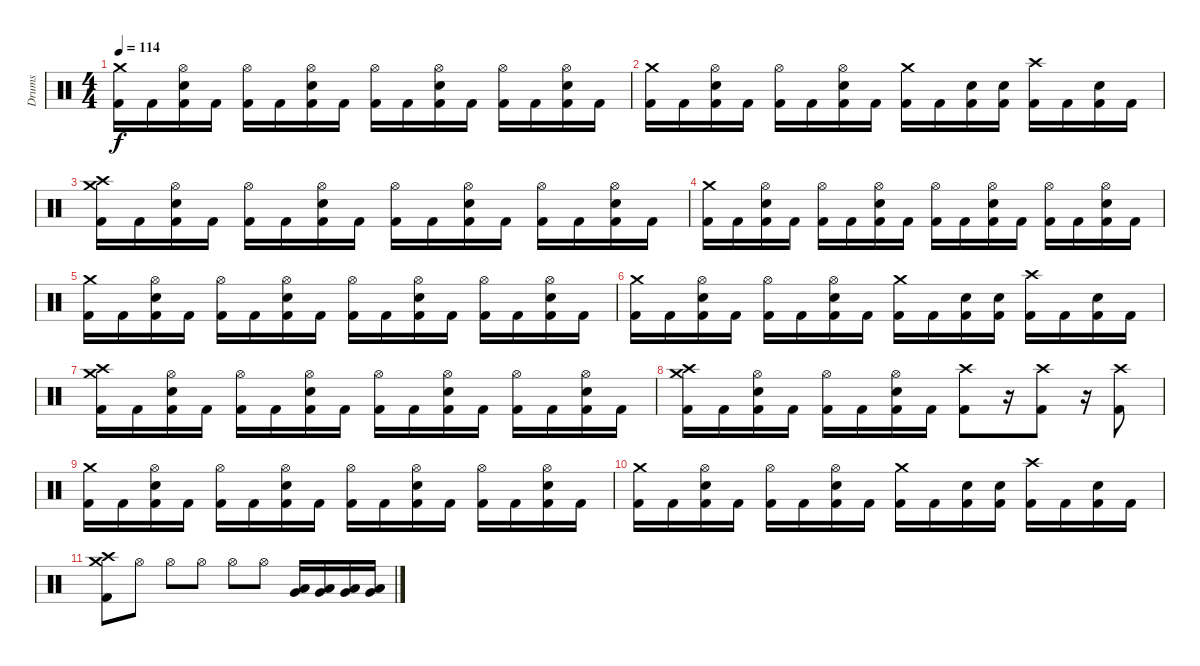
\track ("Drums" "Drums") {instrument percussion}
\staff {score}
\articulation defaults
\ts (4 4)
\tempo 114
\clef neutral
\ks c
("Crash medium (hit)" "Kick (hit) 2").16{dy f volume 16} "Kick (hit) 2".16 ("Hi-Hat (open)" "Snare (hit) 2" "Kick (hit) 2").16 "Kick (hit) 2".16 ("Hi-Hat (open)" "Kick (hit) 2").16 "Kick (hit) 2".16 ("Hi-Hat (open)" "Snare (hit) 2" "Kick (hit) 2").16 "Kick (hit) 2".16 ("Hi-Hat (open)" "Kick (hit) 2").16 "Kick (hit) 2".16 ("Hi-Hat (open)" "Snare (hit) 2" "Kick (hit) 2").16 "Kick (hit) 2".16 ("Hi-Hat (open)" "Kick (hit) 2").16 "Kick (hit) 2".16 ("Hi-Hat (open)" "Snare (hit) 2" "Kick (hit) 2").16 "Kick (hit) 2".16 |
("Crash medium (hit)" "Kick (hit) 2").16 "Kick (hit) 2".16 ("Hi-Hat (open)" "Snare (hit) 2" "Kick (hit) 2").16 "Kick (hit) 2".16 ("Hi-Hat (open)" "Kick (hit) 2").16 "Kick (hit) 2".16 ("Hi-Hat (open)" "Snare (hit) 2" "Kick (hit) 2").16 "Kick (hit) 2".16 ("Crash medium (hit)" "Kick (hit) 2").16 "Kick (hit) 2".16 ("Snare (hit) 2" "Kick (hit) 2").16 ("Snare (hit) 2" "Kick (hit) 2").16 ("Crash high (hit)" "Kick (hit) 2").16 "Kick (hit) 2".16 ("Snare (hit) 2" "Kick (hit) 2").16 "Kick (hit) 2".16 |
("Crash medium (hit)" "Crash high (hit)" "Kick (hit) 2").16 "Kick (hit) 2".16 ("Hi-Hat (open)" "Snare (hit) 2" "Kick (hit) 2").16 "Kick (hit) 2".16 ("Hi-Hat (open)" "Kick (hit) 2").16 "Kick (hit) 2".16 ("Hi-Hat (open)" "Snare (hit) 2" "Kick (hit) 2").16 "Kick (hit) 2".16 ("Hi-Hat (open)" "Kick (hit) 2").16 "Kick (hit) 2".16 ("Hi-Hat (open)" "Snare (hit) 2" "Kick (hit) 2").16 "Kick (hit) 2".16 ("Hi-Hat (open)" "Kick (hit) 2").16 "Kick (hit) 2".16 ("Hi-Hat (open)" "Snare (hit) 2" "Kick (hit) 2").16 "Kick (hit) 2".16 |
("Crash medium (hit)" "Kick (hit) 2").16 "Kick (hit) 2".16 ("Hi-Hat (open)" "Snare (hit) 2" "Kick (hit) 2").16 "Kick (hit) 2".16 ("Hi-Hat (open)" "Kick (hit) 2").16 "Kick (hit) 2".16 ("Hi-Hat (open)" "Snare (hit) 2" "Kick (hit) 2").16 "Kick (hit) 2".16 ("Hi-Hat (open)" "Kick (hit) 2").16 "Kick (hit) 2".16 ("Hi-Hat (open)" "Snare (hit) 2" "Kick (hit) 2").16 "Kick (hit) 2".16 ("Hi-Hat (open)" "Kick (hit) 2").16 "Kick (hit) 2".16 ("Hi-Hat (open)" "Snare (hit) 2" "Kick (hit) 2").16 "Kick (hit) 2".16 |
("Crash medium (hit)" "Kick (hit) 2").16 "Kick (hit) 2".16 ("Hi-Hat (open)" "Snare (hit) 2" "Kick (hit) 2").16 "Kick (hit) 2".16 ("Hi-Hat (open)" "Kick (hit) 2").16 "Kick (hit) 2".16 ("Hi-Hat (open)" "Snare (hit) 2" "Kick (hit) 2").16 "Kick (hit) 2".16 ("Hi-Hat (open)" "Kick (hit) 2").16 "Kick (hit) 2".16 ("Hi-Hat (open)" "Snare (hit) 2" "Kick (hit) 2").16 "Kick (hit) 2".16 ("Hi-Hat (open)" "Kick (hit) 2").16 "Kick (hit) 2".16 ("Hi-Hat (open)" "Snare (hit) 2" "Kick (hit) 2").16 "Kick (hit) 2".16 |
("Crash medium (hit)" "Kick (hit) 2").16 "Kick (hit) 2".16 ("Hi-Hat (open)" "Snare (hit) 2" "Kick (hit) 2").16 "Kick (hit) 2".16 ("Hi-Hat (open)" "Kick (hit) 2").16 "Kick (hit) 2".16 ("Hi-Hat (open)" "Snare (hit) 2" "Kick (hit) 2").16 "Kick (hit) 2".16 ("Crash medium (hit)" "Kick (hit) 2").16 "Kick (hit) 2".16 ("Snare (hit) 2" "Kick (hit) 2").16 ("Snare (hit) 2" "Kick (hit) 2").16 ("Crash high (hit)" "Kick (hit) 2").16 "Kick (hit) 2".16 ("Snare (hit) 2" "Kick (hit) 2").16 "Kick (hit) 2".16 |
("Crash medium (hit)" "Crash high (hit)" "Kick (hit) 2").16 "Kick (hit) 2".16 ("Hi-Hat (open)" "Snare (hit) 2" "Kick (hit) 2").16 "Kick (hit) 2".16 ("Hi-Hat (open)" "Kick (hit) 2").16 "Kick (hit) 2".16 ("Hi-Hat (open)" "Snare (hit) 2" "Kick (hit) 2").16 "Kick (hit) 2".16 ("Hi-Hat (open)" "Kick (hit) 2").16 "Kick (hit) 2".16 ("Hi-Hat (open)" "Snare (hit) 2" "Kick (hit) 2").16 "Kick (hit) 2".16 ("Hi-Hat (open)" "Kick (hit) 2").16 "Kick (hit) 2".16 ("Hi-Hat (open)" "Snare (hit) 2" "Kick (hit) 2").16 "Kick (hit) 2".16 |
("Crash medium (hit)" "Crash high (hit)" "Kick (hit) 2").16 "Kick (hit) 2".16 ("Hi-Hat (open)" "Snare (hit) 2" "Kick (hit) 2").16 "Kick (hit) 2".16 ("Hi-Hat (open)" "Kick (hit) 2").16 "Kick (hit) 2".16 ("Hi-Hat (open)" "Snare (hit) 2" "Kick (hit) 2").16 "Kick (hit) 2".16 ("Crash high (hit)" "Kick (hit) 2").8 r.16{volume 0} ("Crash high (hit)" "Kick (hit) 2").8{volume 14} r.16{volume 0} ("Crash high (hit)" "Kick (hit) 2").8{volume 13} |
("Crash medium (hit)" "Kick (hit) 2").16{volume 16} "Kick (hit) 2".16 ("Hi-Hat (open)" "Snare (hit) 2" "Kick (hit) 2").16 "Kick (hit) 2".16 ("Hi-Hat (open)" "Kick (hit) 2").16 "Kick (hit) 2".16 ("Hi-Hat (open)" "Snare (hit) 2" "Kick (hit) 2").16 "Kick (hit) 2".16 ("Hi-Hat (open)" "Kick (hit) 2").16 "Kick (hit) 2".16 ("Hi-Hat (open)" "Snare (hit) 2" "Kick (hit) 2").16 "Kick (hit) 2".16 ("Hi-Hat (open)" "Kick (hit) 2").16 "Kick (hit) 2".16 ("Hi-Hat (open)" "Snare (hit) 2" "Kick (hit) 2").16 "Kick (hit) 2".16 |
("Crash medium (hit)" "Kick (hit) 2").16 "Kick (hit) 2".16 ("Hi-Hat (open)" "Snare (hit) 2" "Kick (hit) 2").16 "Kick (hit) 2".16 ("Hi-Hat (open)" "Kick (hit) 2").16 "Kick (hit) 2".16 ("Hi-Hat (open)" "Snare (hit) 2" "Kick (hit) 2").16 "Kick (hit) 2".16 ("Crash medium (hit)" "Kick (hit) 2").16 "Kick (hit) 2".16 ("Snare (hit) 2" "Kick (hit) 2").16 ("Snare (hit) 2" "Kick (hit) 2").16 ("Crash high (hit)" "Kick (hit) 2").16 "Kick (hit) 2".16 ("Snare (hit) 2" "Kick (hit) 2").16 "Kick (hit) 2".16 |
("Crash medium (hit)" "Crash high (hit)" "Kick (hit) 2").8 "Hi-Hat (open)".8 "Hi-Hat (open)".8 "Hi-Hat (open)".8 "Hi-Hat (open)".8 "Hi-Hat (open)".8 ("Very Low Tom (hit)" "Low Floor Tom (hit)").16 ("Very Low Tom (hit)" "Low Floor Tom (hit)").16 ("Very Low Tom (hit)" "Low Floor Tom (hit)").16 ("Very Low Tom (hit)" "Low Floor Tom (hit)").16
